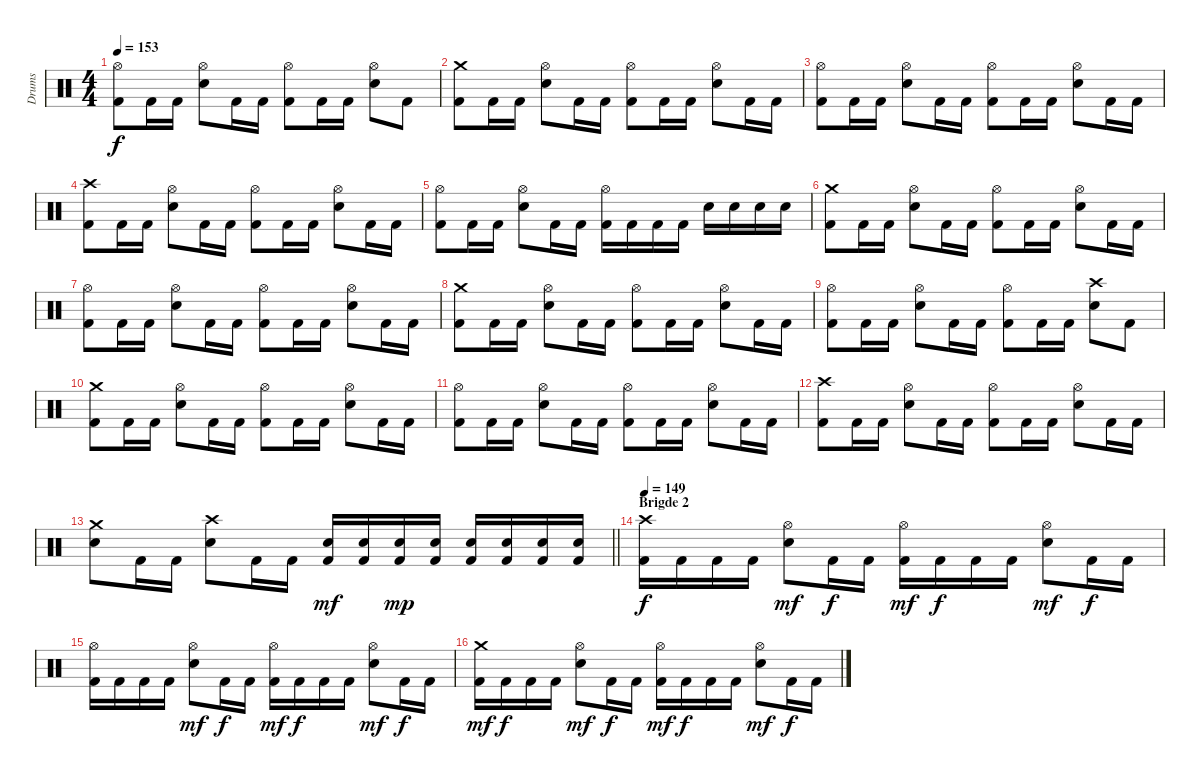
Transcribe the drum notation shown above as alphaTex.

\track ("Drums" "Drums") {instrument percussion}
\staff
\articulation defaults
\ts (4 4)
\tempo 153
\clef neutral
\ks c
("Kick (hit) 2" "Hi-Hat (open)").8{dy f} "Kick (hit) 2".16 "Kick (hit) 2".16 ("Electric Snare (hit)" "Hi-Hat (open)").8 "Kick (hit) 2".16 "Kick (hit) 2".16 ("Kick (hit) 2" "Hi-Hat (open)").8 "Kick (hit) 2".16 "Kick (hit) 2".16 ("Electric Snare (hit)" "Hi-Hat (open)").8 "Kick (hit) 2".8 |
("Kick (hit) 2" "Crash medium (hit)").8 "Kick (hit) 2".16 "Kick (hit) 2".16 ("Electric Snare (hit)" "Hi-Hat (open)").8 "Kick (hit) 2".16 "Kick (hit) 2".16 ("Kick (hit) 2" "Hi-Hat (open)").8 "Kick (hit) 2".16 "Kick (hit) 2".16 ("Electric Snare (hit)" "Hi-Hat (open)").8 "Kick (hit) 2".16 "Kick (hit) 2".16 |
("Kick (hit) 2" "Hi-Hat (open)").8 "Kick (hit) 2".16 "Kick (hit) 2".16 ("Electric Snare (hit)" "Hi-Hat (open)").8 "Kick (hit) 2".16 "Kick (hit) 2".16 ("Kick (hit) 2" "Hi-Hat (open)").8 "Kick (hit) 2".16 "Kick (hit) 2".16 ("Electric Snare (hit)" "Hi-Hat (open)").8 "Kick (hit) 2".16 "Kick (hit) 2".16 |
("Kick (hit) 2" "Crash high (hit)").8 "Kick (hit) 2".16 "Kick (hit) 2".16 ("Electric Snare (hit)" "Hi-Hat (open)").8 "Kick (hit) 2".16 "Kick (hit) 2".16 ("Kick (hit) 2" "Hi-Hat (open)").8 "Kick (hit) 2".16 "Kick (hit) 2".16 ("Electric Snare (hit)" "Hi-Hat (open)").8 "Kick (hit) 2".16 "Kick (hit) 2".16 |
("Kick (hit) 2" "Hi-Hat (open)").8 "Kick (hit) 2".16 "Kick (hit) 2".16 ("Electric Snare (hit)" "Hi-Hat (open)").8 "Kick (hit) 2".16 "Kick (hit) 2".16 ("Kick (hit) 2" "Hi-Hat (open)").16 "Kick (hit) 2".16 "Kick (hit) 2".16 "Kick (hit) 2".16 "Electric Snare (hit)".16 "Electric Snare (hit)".16 "Electric Snare (hit)".16 "Electric Snare (hit)".16 |
("Kick (hit) 2" "Crash medium (hit)").8 "Kick (hit) 2".16 "Kick (hit) 2".16 ("Electric Snare (hit)" "Hi-Hat (open)").8 "Kick (hit) 2".16 "Kick (hit) 2".16 ("Kick (hit) 2" "Hi-Hat (open)").8 "Kick (hit) 2".16 "Kick (hit) 2".16 ("Electric Snare (hit)" "Hi-Hat (open)").8 "Kick (hit) 2".16 "Kick (hit) 2".16 |
("Kick (hit) 2" "Hi-Hat (open)").8 "Kick (hit) 2".16 "Kick (hit) 2".16 ("Electric Snare (hit)" "Hi-Hat (open)").8 "Kick (hit) 2".16 "Kick (hit) 2".16 ("Kick (hit) 2" "Hi-Hat (open)").8 "Kick (hit) 2".16 "Kick (hit) 2".16 ("Electric Snare (hit)" "Hi-Hat (open)").8 "Kick (hit) 2".16 "Kick (hit) 2".16 |
("Kick (hit) 2" "Crash medium (hit)").8 "Kick (hit) 2".16 "Kick (hit) 2".16 ("Electric Snare (hit)" "Hi-Hat (open)").8 "Kick (hit) 2".16 "Kick (hit) 2".16 ("Kick (hit) 2" "Hi-Hat (open)").8 "Kick (hit) 2".16 "Kick (hit) 2".16 ("Electric Snare (hit)" "Hi-Hat (open)").8 "Kick (hit) 2".16 "Kick (hit) 2".16 |
("Kick (hit) 2" "Hi-Hat (open)").8 "Kick (hit) 2".16 "Kick (hit) 2".16 ("Electric Snare (hit)" "Hi-Hat (open)").8 "Kick (hit) 2".16 "Kick (hit) 2".16 ("Kick (hit) 2" "Hi-Hat (open)").8 "Kick (hit) 2".16 "Kick (hit) 2".16 ("Electric Snare (hit)" "Crash high (hit)").8 "Kick (hit) 2".8 |
("Kick (hit) 2" "Crash medium (hit)").8 "Kick (hit) 2".16 "Kick (hit) 2".16 ("Electric Snare (hit)" "Hi-Hat (open)").8 "Kick (hit) 2".16 "Kick (hit) 2".16 ("Kick (hit) 2" "Hi-Hat (open)").8 "Kick (hit) 2".16 "Kick (hit) 2".16 ("Electric Snare (hit)" "Hi-Hat (open)").8 "Kick (hit) 2".16 "Kick (hit) 2".16 |
("Kick (hit) 2" "Hi-Hat (open)").8 "Kick (hit) 2".16 "Kick (hit) 2".16 ("Electric Snare (hit)" "Hi-Hat (open)").8 "Kick (hit) 2".16 "Kick (hit) 2".16 ("Kick (hit) 2" "Hi-Hat (open)").8 "Kick (hit) 2".16 "Kick (hit) 2".16 ("Electric Snare (hit)" "Hi-Hat (open)").8 "Kick (hit) 2".16 "Kick (hit) 2".16 |
("Kick (hit) 2" "Crash high (hit)").8 "Kick (hit) 2".16 "Kick (hit) 2".16 ("Electric Snare (hit)" "Hi-Hat (open)").8 "Kick (hit) 2".16 "Kick (hit) 2".16 ("Kick (hit) 2" "Hi-Hat (open)").8 "Kick (hit) 2".16 "Kick (hit) 2".16 ("Electric Snare (hit)" "Hi-Hat (open)").8 "Kick (hit) 2".16 "Kick (hit) 2".16 |
\barLineRight lightlight
("Electric Snare (hit)" "Crash medium (hit)").8 "Kick (hit) 2".16 "Kick (hit) 2".16 ("Electric Snare (hit)" "Crash high (hit)").8 "Kick (hit) 2".16 "Kick (hit) 2".16 ("Kick (hit) 2" "Electric Snare (hit)").16{dy mf} ("Kick (hit) 2" "Electric Snare (hit)").16 ("Kick (hit) 2" "Electric Snare (hit)").16{dy mp} ("Kick (hit) 2" "Electric Snare (hit)").16 ("Kick (hit) 2" "Electric Snare (hit)").16 ("Kick (hit) 2" "Electric Snare (hit)").16 ("Kick (hit) 2" "Electric Snare (hit)").16 ("Kick (hit) 2" "Electric Snare (hit)").16 |
\section ("" "Brigde 2")
\tempo 149
("Kick (hit) 2" "Crash high (hit)").16{dy f} "Kick (hit) 2".16 "Kick (hit) 2".16 "Kick (hit) 2".16 ("Electric Snare (hit)" "Hi-Hat (open)").8{dy mf} "Kick (hit) 2".16{dy f} "Kick (hit) 2".16 ("Kick (hit) 2" "Hi-Hat (open)").16{dy mf} "Kick (hit) 2".16{dy f} "Kick (hit) 2".16 "Kick (hit) 2".16 ("Electric Snare (hit)" "Hi-Hat (open)").8{dy mf} "Kick (hit) 2".16{dy f} "Kick (hit) 2".16 |
("Kick (hit) 2" "Hi-Hat (open)").16 "Kick (hit) 2".16 "Kick (hit) 2".16 "Kick (hit) 2".16 ("Electric Snare (hit)" "Hi-Hat (open)").8{dy mf} "Kick (hit) 2".16{dy f} "Kick (hit) 2".16 ("Kick (hit) 2" "Hi-Hat (open)").16{dy mf} "Kick (hit) 2".16{dy f} "Kick (hit) 2".16 "Kick (hit) 2".16 ("Electric Snare (hit)" "Hi-Hat (open)").8{dy mf} "Kick (hit) 2".16{dy f} "Kick (hit) 2".16 |
("Kick (hit) 2" "Crash medium (hit)").16{dy mf} "Kick (hit) 2".16{dy f} "Kick (hit) 2".16 "Kick (hit) 2".16 ("Electric Snare (hit)" "Hi-Hat (open)").8{dy mf} "Kick (hit) 2".16{dy f} "Kick (hit) 2".16 ("Kick (hit) 2" "Hi-Hat (open)").16{dy mf} "Kick (hit) 2".16{dy f} "Kick (hit) 2".16 "Kick (hit) 2".16 ("Electric Snare (hit)" "Hi-Hat (open)").8{dy mf} "Kick (hit) 2".16{dy f} "Kick (hit) 2".16
